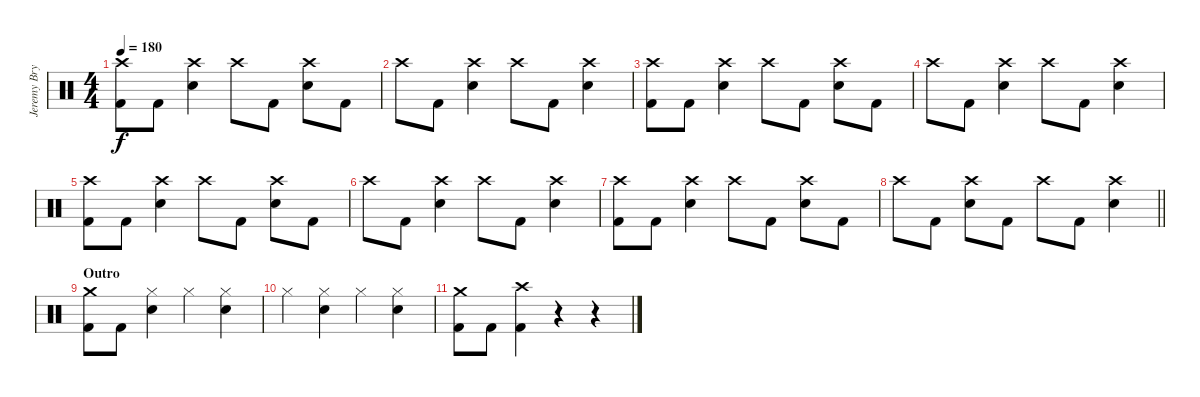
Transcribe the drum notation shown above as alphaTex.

\track ("Jeremy Bryan - Drums" "Jeremy Bry") {instrument percussion}
\staff {score}
\articulation defaults
\ts (4 4)
\tempo 180
\clef neutral
\ks c
("Crash high (hit)" "Kick (hit) 2").8{dy f} "Kick (hit) 2".8 ("Crash high (hit)" "Electric Snare (hit)").4 "Crash high (hit)".8 "Kick (hit) 2".8 ("Crash high (hit)" "Electric Snare (hit)").8 "Kick (hit) 2".8 |
"Crash high (hit)".8 "Kick (hit) 2".8 ("Crash high (hit)" "Electric Snare (hit)").4 "Crash high (hit)".8 "Kick (hit) 2".8 ("Crash high (hit)" "Electric Snare (hit)").4 |
("Crash high (hit)" "Kick (hit) 2").8 "Kick (hit) 2".8 ("Crash high (hit)" "Electric Snare (hit)").4 "Crash high (hit)".8 "Kick (hit) 2".8 ("Crash high (hit)" "Electric Snare (hit)").8 "Kick (hit) 2".8 |
"Crash high (hit)".8 "Kick (hit) 2".8 ("Crash high (hit)" "Electric Snare (hit)").4 "Crash high (hit)".8 "Kick (hit) 2".8 ("Crash high (hit)" "Electric Snare (hit)").4 |
("Crash high (hit)" "Kick (hit) 2").8 "Kick (hit) 2".8 ("Crash high (hit)" "Electric Snare (hit)").4 "Crash high (hit)".8 "Kick (hit) 2".8 ("Crash high (hit)" "Electric Snare (hit)").8 "Kick (hit) 2".8 |
"Crash high (hit)".8 "Kick (hit) 2".8 ("Crash high (hit)" "Electric Snare (hit)").4 "Crash high (hit)".8 "Kick (hit) 2".8 ("Crash high (hit)" "Electric Snare (hit)").4 |
("Crash high (hit)" "Kick (hit) 2").8 "Kick (hit) 2".8 ("Crash high (hit)" "Electric Snare (hit)").4 "Crash high (hit)".8 "Kick (hit) 2".8 ("Crash high (hit)" "Electric Snare (hit)").8 "Kick (hit) 2".8 |
\barLineRight lightlight "Crash high (hit)".8 "Kick (hit) 2".8
("Crash high (hit)" "Electric Snare (hit)").8 "Kick (hit) 2".8 "Crash high (hit)".8 "Kick (hit) 2".8 ("Crash high (hit)" "Electric Snare (hit)").4 |
\section ("" "Outro")
("Crash medium (hit)" "Kick (hit) 2").8 "Kick (hit) 2".8 ("Hi-Hat (closed)" "Electric Snare (hit)").4 "Hi-Hat (closed)".4 ("Hi-Hat (closed)" "Electric Snare (hit)").4 |
"Hi-Hat (closed)".4 ("Hi-Hat (closed)" "Electric Snare (hit)").4 "Hi-Hat (closed)".4 ("Hi-Hat (closed)" "Electric Snare (hit)").4 |
("Crash medium (hit)" "Kick (hit) 2").8 "Kick (hit) 2".8 ("Crash high (hit)" "Kick (hit) 2").4 r.4 r.4
